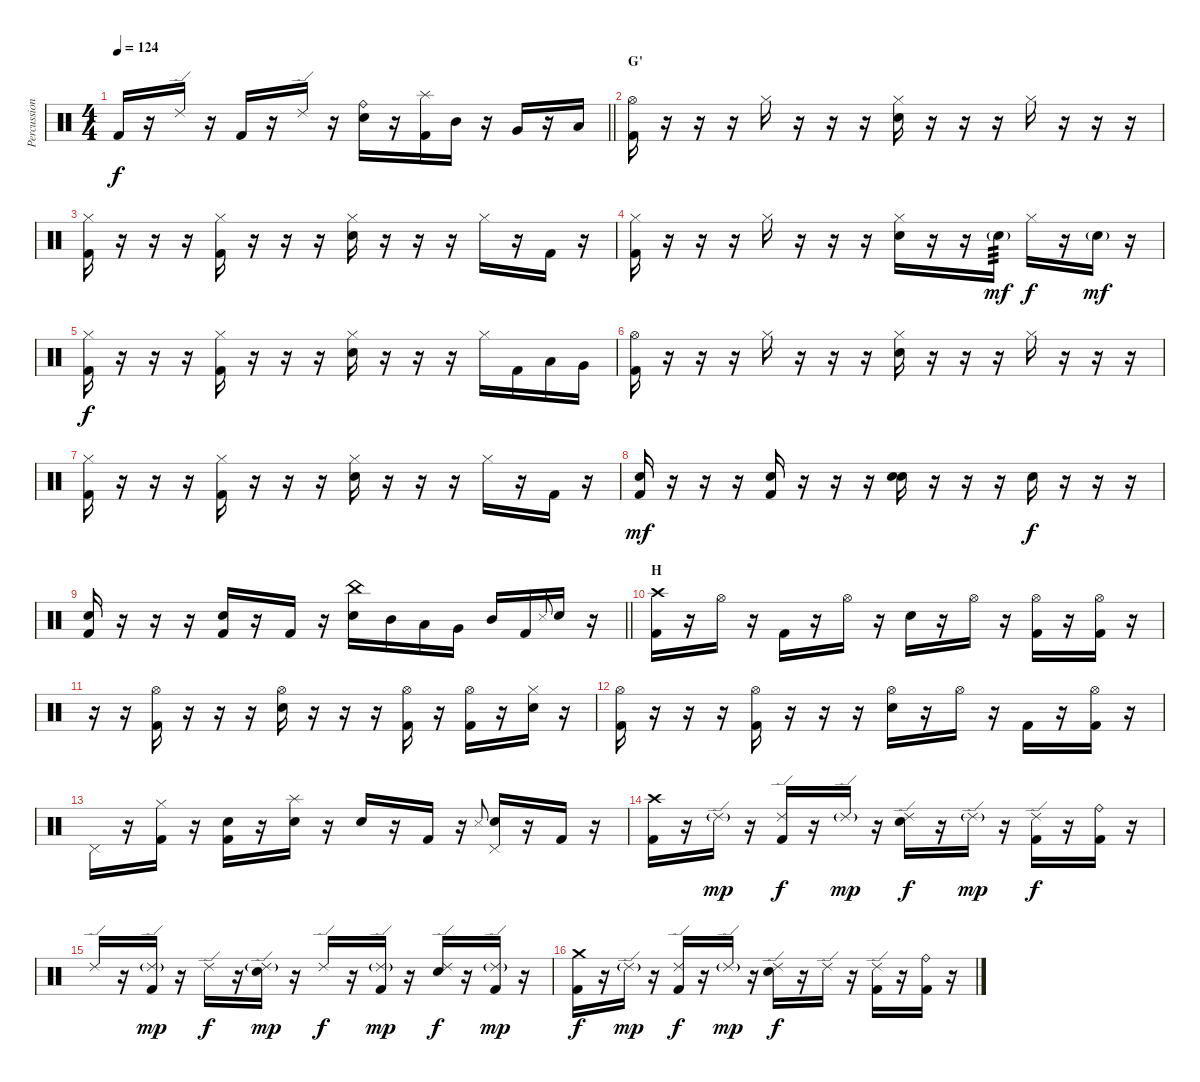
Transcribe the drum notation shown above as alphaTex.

\track ("Percussion" "Percussion") {instrument percussion}
\staff {score}
\articulation defaults
\ts (4 4)
\tempo 124
\clef neutral
\barLineRight lightlight
\ks c "Kick (hit) 2".16{dy f}
r.16 "Ride (edge) 2".16 r.16 "Kick (hit) 2".16 r.16 "Ride (edge) 2".16 r.16 ("Ride (bell)" "Snare (hit) 2").16 r.16 ("Splash (hit)" "Kick (hit) 2").16 "Mid Tom (hit)".16 r.16 "Very Low Tom (hit)".16 r.16 "Low Floor Tom (hit)".16 |
\section ("" "G'")
("Hi-Hat (open)" "Kick (hit) 2").16 r.16 r.16 r.16 "Hi-Hat (closed)".16 r.16 r.16 r.16 ("Hi-Hat (closed)" "Snare (hit) 2").16 r.16 r.16 r.16 "Hi-Hat (closed)".16 r.16 r.16 r.16 |
("Hi-Hat (closed)" "Kick (hit) 2").16 r.16 r.16 r.16 ("Hi-Hat (closed)" "Kick (hit) 2").16 r.16 r.16 r.16 ("Hi-Hat (closed)" "Snare (hit) 2").16 r.16 r.16 r.16 "Hi-Hat (closed)".16 r.16 "Kick (hit) 2".16 r.16 |
("Hi-Hat (closed)" "Kick (hit) 2").16 r.16 r.16 r.16 "Hi-Hat (closed)".16 r.16 r.16 r.16 ("Hi-Hat (closed)" "Snare (hit) 2").16 r.16 r.16 "Snare (hit) 2"{g}.16{tp 3 dy mf} "Hi-Hat (closed)".16{dy f} r.16 "Snare (hit) 2"{g}.16{dy mf} r.16 |
("Hi-Hat (closed)" "Kick (hit) 2").16{dy f} r.16 r.16 r.16 ("Hi-Hat (closed)" "Kick (hit) 2").16 r.16 r.16 r.16 ("Hi-Hat (closed)" "Snare (hit) 2").16 r.16 r.16 r.16 "Hi-Hat (closed)".16 "Kick (hit) 2".16 "Low Tom (hit)".16 "Very Low Tom (hit)".16 |
("Hi-Hat (open)" "Kick (hit) 2").16 r.16 r.16 r.16 "Hi-Hat (closed)".16 r.16 r.16 r.16 ("Hi-Hat (closed)" "Snare (hit) 2").16 r.16 r.16 r.16 "Hi-Hat (closed)".16 r.16 r.16 r.16 |
("Hi-Hat (closed)" "Kick (hit) 2").16 r.16 r.16 r.16 ("Hi-Hat (closed)" "Kick (hit) 2").16 r.16 r.16 r.16 ("Hi-Hat (closed)" "Snare (hit) 2").16 r.16 r.16 r.16 "Hi-Hat (closed)".16 r.16 "Kick (hit) 2".16 r.16 |
("Snare (hit)" "Kick (hit) 2").16{dy mf} r.16 r.16 r.16 ("Snare (hit)" "Kick (hit) 2").16 r.16 r.16 r.16 ("Snare (hit)" "Snare (hit) 2").16 r.16 r.16 r.16 "Snare (hit)".16{dy f} r.16 r.16 r.16 |
\barLineRight lightlight
("Snare (hit)" "Kick (hit) 2").16 r.16 r.16 r.16 ("Snare (hit)" "Kick (hit) 2").16 r.16 "Kick (hit) 2".16 r.16 ("China (hit)" "Snare (hit) 2").16 "Mid Tom (hit)".16 "Low Tom (hit)".16 "Very Low Tom (hit)".16 "Mid Tom (hit)".16 "Kick (hit) 2".16 "Metronome (hit)".8{gr onbeat} "Snare (hit) 2".16 r.16 |
\section ("" "H")
("Crash high (hit)" "Kick (hit) 2").16 r.16 "Hi-Hat (open)".16 r.16 "Kick (hit) 2".16 r.16 "Hi-Hat (open)".16 r.16 "Snare (hit) 2".16 r.16 "Hi-Hat (open)".16 r.16 ("Hi-Hat (open)" "Kick (hit) 2").16 r.16 ("Hi-Hat (open)" "Kick (hit) 2").16 r.16 |
r.16 r.16 ("Hi-Hat (open)" "Kick (hit) 2").16 r.16 r.16 r.16 ("Hi-Hat (open)" "Snare (hit) 2").16 r.16 r.16 r.16 ("Hi-Hat (open)" "Kick (hit) 2").16 r.16 ("Hi-Hat (open)" "Kick (hit) 2").16 r.16 ("Hi-Hat (closed)" "Snare (hit) 2").16 r.16 |
("Hi-Hat (open)" "Kick (hit) 2").16 r.16 r.16 r.16 ("Hi-Hat (open)" "Kick (hit) 2").16 r.16 r.16 r.16 ("Hi-Hat (open)" "Snare (hit) 2").16 r.16 "Hi-Hat (open)".16 r.16 "Kick (hit) 2".16 r.16 ("Hi-Hat (open)" "Kick (hit) 2").16 r.16 |
"Pedal Hi-Hat (hit)".16 r.16 ("Hi-Hat (closed)" "Kick (hit) 2").16 r.16 ("Snare (hit)" "Kick (hit) 2").16 r.16 ("Splash (hit)" "Snare (hit) 2").16 r.16 "Snare (hit)".16 r.16 "Kick (hit) 2".16 r.16 "Metronome (hit)".8{gr onbeat} ("Pedal Hi-Hat (hit)" "Snare (hit) 2").16 r.16 "Kick (hit) 2".16 r.16 |
("Crash high (hit)" "Kick (hit) 2").16 r.16 "Ride (edge) 2"{g}.16{dy mp} r.16 ("Ride (edge) 2" "Kick (hit) 2").16{dy f} r.16 "Ride (edge) 2"{g}.16{dy mp} r.16 ("Ride (edge) 2" "Snare (hit) 2").16{dy f} r.16 "Ride (edge) 2"{g}.16{dy mp} r.16 ("Ride (edge) 2" "Kick (hit) 2").16{dy f} r.16 ("Ride (bell)" "Kick (hit) 2").16 r.16 |
"Ride (edge) 2".16 r.16 ("Ride (edge) 2"{g} "Kick (hit) 2").16{dy mp} r.16 "Ride (edge) 2".16{dy f} r.16 ("Ride (edge) 2"{g} "Snare (hit) 2").16{dy mp} r.16 "Ride (edge) 2".16{dy f} r.16 ("Ride (edge) 2"{g} "Kick (hit) 2").16{dy mp} r.16 ("Ride (edge) 2" "Snare (hit) 2").16{dy f} r.16 ("Ride (edge) 2"{g} "Kick (hit) 2").16{dy mp} r.16 |
("Crash medium (hit)" "Kick (hit) 2").16{dy f} r.16 "Ride (edge) 2"{g}.16{dy mp} r.16 ("Ride (edge) 2" "Kick (hit) 2").16{dy f} r.16 "Ride (edge) 2"{g}.16{dy mp} r.16 ("Ride (edge) 2" "Snare (hit) 2").16{dy f} r.16 "Ride (edge) 2".16 r.16 ("Ride (edge) 2" "Kick (hit) 2").16 r.16 ("Ride (bell)" "Kick (hit) 2").16 r.16
